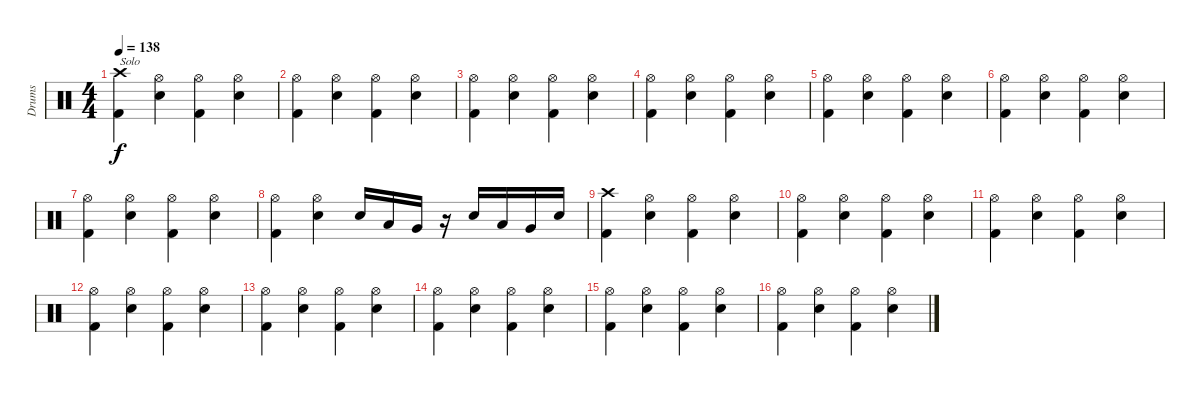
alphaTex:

\track ("Drums" "Drums") {instrument percussion}
\staff {score}
\articulation defaults
\ts (4 4)
\tempo 138
\clef neutral
\ks c
("Kick (hit) 2" "Crash high (hit)").4{txt "Solo" dy f} ("Electric Snare (hit)" "Hi-Hat (open)").4 ("Kick (hit) 2" "Hi-Hat (open)").4 ("Electric Snare (hit)" "Hi-Hat (open)").4 |
("Kick (hit) 2" "Hi-Hat (open)").4 ("Electric Snare (hit)" "Hi-Hat (open)").4 ("Kick (hit) 2" "Hi-Hat (open)").4 ("Electric Snare (hit)" "Hi-Hat (open)").4 |
("Kick (hit) 2" "Hi-Hat (open)").4 ("Electric Snare (hit)" "Hi-Hat (open)").4 ("Kick (hit) 2" "Hi-Hat (open)").4 ("Electric Snare (hit)" "Hi-Hat (open)").4 |
("Kick (hit) 2" "Hi-Hat (open)").4 ("Electric Snare (hit)" "Hi-Hat (open)").4 ("Kick (hit) 2" "Hi-Hat (open)").4 ("Electric Snare (hit)" "Hi-Hat (open)").4 |
("Kick (hit) 2" "Hi-Hat (open)").4 ("Electric Snare (hit)" "Hi-Hat (open)").4 ("Kick (hit) 2" "Hi-Hat (open)").4 ("Electric Snare (hit)" "Hi-Hat (open)").4 |
("Kick (hit) 2" "Hi-Hat (open)").4 ("Electric Snare (hit)" "Hi-Hat (open)").4 ("Kick (hit) 2" "Hi-Hat (open)").4 ("Electric Snare (hit)" "Hi-Hat (open)").4 |
("Kick (hit) 2" "Hi-Hat (open)").4 ("Electric Snare (hit)" "Hi-Hat (open)").4 ("Kick (hit) 2" "Hi-Hat (open)").4 ("Electric Snare (hit)" "Hi-Hat (open)").4 |
("Kick (hit) 2" "Hi-Hat (open)").4 ("Electric Snare (hit)" "Hi-Hat (open)").4 "Electric Snare (hit)".16 "Low Tom (hit)".16 "Very Low Tom (hit)".16 r.16 "Electric Snare (hit)".16 "Low Tom (hit)".16 "Very Low Tom (hit)".16 "Electric Snare (hit)".16 |
("Kick (hit) 2" "Crash high (hit)").4 ("Electric Snare (hit)" "Hi-Hat (open)").4 ("Kick (hit) 2" "Hi-Hat (open)").4 ("Electric Snare (hit)" "Hi-Hat (open)").4 |
("Kick (hit) 2" "Hi-Hat (open)").4 ("Electric Snare (hit)" "Hi-Hat (open)").4 ("Kick (hit) 2" "Hi-Hat (open)").4 ("Electric Snare (hit)" "Hi-Hat (open)").4 |
("Kick (hit) 2" "Hi-Hat (open)").4 ("Electric Snare (hit)" "Hi-Hat (open)").4 ("Kick (hit) 2" "Hi-Hat (open)").4 ("Electric Snare (hit)" "Hi-Hat (open)").4 |
("Kick (hit) 2" "Hi-Hat (open)").4 ("Electric Snare (hit)" "Hi-Hat (open)").4 ("Kick (hit) 2" "Hi-Hat (open)").4 ("Electric Snare (hit)" "Hi-Hat (open)").4 |
("Kick (hit) 2" "Hi-Hat (open)").4 ("Electric Snare (hit)" "Hi-Hat (open)").4 ("Kick (hit) 2" "Hi-Hat (open)").4 ("Electric Snare (hit)" "Hi-Hat (open)").4 |
("Kick (hit) 2" "Hi-Hat (open)").4 ("Electric Snare (hit)" "Hi-Hat (open)").4 ("Kick (hit) 2" "Hi-Hat (open)").4 ("Electric Snare (hit)" "Hi-Hat (open)").4 |
("Kick (hit) 2" "Hi-Hat (open)").4 ("Electric Snare (hit)" "Hi-Hat (open)").4 ("Kick (hit) 2" "Hi-Hat (open)").4 ("Electric Snare (hit)" "Hi-Hat (open)").4 |
("Kick (hit) 2" "Hi-Hat (open)").4 ("Electric Snare (hit)" "Hi-Hat (open)").4 ("Kick (hit) 2" "Hi-Hat (open)").4 ("Electric Snare (hit)" "Hi-Hat (open)").4
